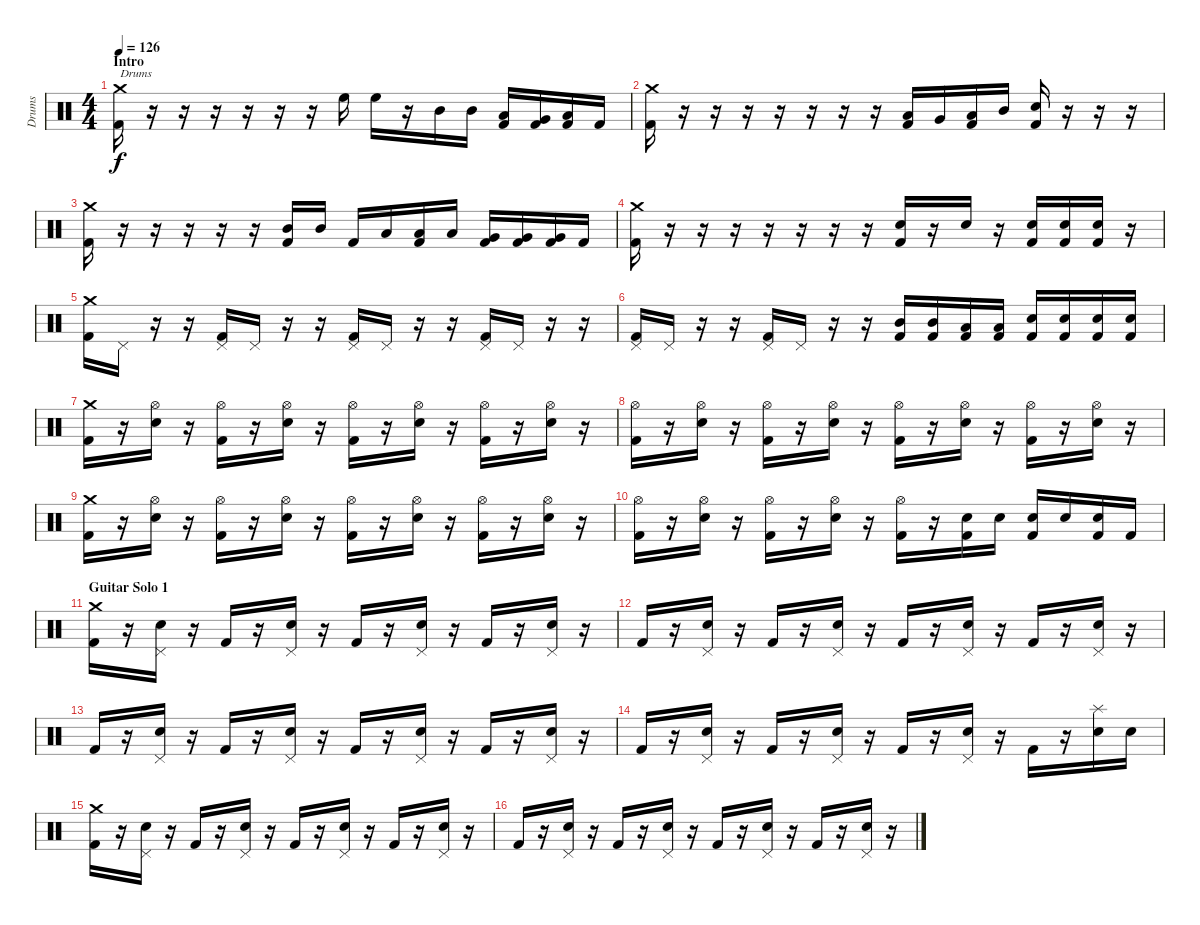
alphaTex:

\track ("Drums" "Drums") {instrument percussion}
\staff {score}
\articulation defaults
\ts (4 4)
\section ("" "Intro")
\tempo 126
\clef neutral
\ks c
("Crash medium (hit)" "Kick (hit) 2").16{txt "Drums" dy f} r.16 r.16 r.16 r.16 r.16 r.16 "High Floor Tom (hit)".16 "High Floor Tom (hit)".16 r.16 "Mid Tom (hit)".16 "Mid Tom (hit)".16 ("Low Tom (hit)" "Kick (hit) 2").16 ("Very Low Tom (hit)" "Kick (hit) 2").16 ("Low Floor Tom (hit)" "Kick (hit) 2").16 "Kick (hit) 2".16 |
("Crash medium (hit)" "Kick (hit) 2").16 r.16 r.16 r.16 r.16 r.16 r.16 r.16 ("Low Floor Tom (hit)" "Kick (hit) 2").16 "Very Low Tom (hit)".16 ("Low Tom (hit)" "Kick (hit) 2").16 "Mid Tom (hit)".16 ("Electric Snare (hit)" "Kick (hit) 2").16 r.16 r.16 r.16 |
("Crash medium (hit)" "Kick (hit) 2").16 r.16 r.16 r.16 r.16 r.16 ("Mid Tom (hit)" "Kick (hit) 2").16 "Mid Tom (hit)".16 "Kick (hit) 2".16 "Low Tom (hit)".16 ("Low Tom (hit)" "Kick (hit) 2").16 "Low Tom (hit)".16 ("Very Low Tom (hit)" "Kick (hit) 2").16 ("Very Low Tom (hit)" "Kick (hit) 2").16 ("Very Low Tom (hit)" "Kick (hit) 2").16 "Kick (hit) 2".16 |
("Crash medium (hit)" "Kick (hit) 2").16 r.16 r.16 r.16 r.16 r.16 r.16 r.16 ("Electric Snare (hit)" "Kick (hit) 2").16 r.16 "Electric Snare (hit)".16 r.16 ("Electric Snare (hit)" "Kick (hit) 2").16 ("Electric Snare (hit)" "Kick (hit) 2").16 ("Electric Snare (hit)" "Kick (hit) 2").16 r.16 |
("Crash medium (hit)" "Kick (hit) 2").16 "Pedal Hi-Hat (hit)".16 r.16 r.16 ("Pedal Hi-Hat (hit)" "Kick (hit) 2").16 "Pedal Hi-Hat (hit)".16 r.16 r.16 ("Pedal Hi-Hat (hit)" "Kick (hit) 2").16 "Pedal Hi-Hat (hit)".16 r.16 r.16 ("Pedal Hi-Hat (hit)" "Kick (hit) 2").16 "Pedal Hi-Hat (hit)".16 r.16 r.16 |
("Pedal Hi-Hat (hit)" "Kick (hit) 2").16 "Pedal Hi-Hat (hit)".16 r.16 r.16 ("Pedal Hi-Hat (hit)" "Kick (hit) 2").16 "Pedal Hi-Hat (hit)".16 r.16 r.16 ("Mid Tom (hit)" "Kick (hit) 2").16 ("Mid Tom (hit)" "Kick (hit) 2").16 ("Low Tom (hit)" "Kick (hit) 2").16 ("Low Tom (hit)" "Kick (hit) 2").16 ("Electric Snare (hit)" "Kick (hit) 2").16 ("Electric Snare (hit)" "Kick (hit) 2").16 ("Electric Snare (hit)" "Kick (hit) 2").16 ("Electric Snare (hit)" "Kick (hit) 2").16 |
("Crash medium (hit)" "Kick (hit) 2").16 r.16 ("Hi-Hat (open)" "Electric Snare (hit)").16 r.16 ("Hi-Hat (open)" "Kick (hit) 2").16 r.16 ("Hi-Hat (open)" "Electric Snare (hit)").16 r.16 ("Hi-Hat (open)" "Kick (hit) 2").16 r.16 ("Hi-Hat (open)" "Electric Snare (hit)").16 r.16 ("Hi-Hat (open)" "Kick (hit) 2").16 r.16 ("Hi-Hat (open)" "Electric Snare (hit)").16 r.16 |
("Hi-Hat (open)" "Kick (hit) 2").16 r.16 ("Hi-Hat (open)" "Electric Snare (hit)").16 r.16 ("Hi-Hat (open)" "Kick (hit) 2").16 r.16 ("Hi-Hat (open)" "Electric Snare (hit)").16 r.16 ("Hi-Hat (open)" "Kick (hit) 2").16 r.16 ("Hi-Hat (open)" "Electric Snare (hit)").16 r.16 ("Hi-Hat (open)" "Kick (hit) 2").16 r.16 ("Hi-Hat (open)" "Electric Snare (hit)").16 r.16 |
("Crash medium (hit)" "Kick (hit) 2").16 r.16 ("Hi-Hat (open)" "Electric Snare (hit)").16 r.16 ("Hi-Hat (open)" "Kick (hit) 2").16 r.16 ("Hi-Hat (open)" "Electric Snare (hit)").16 r.16 ("Hi-Hat (open)" "Kick (hit) 2").16 r.16 ("Hi-Hat (open)" "Electric Snare (hit)").16 r.16 ("Hi-Hat (open)" "Kick (hit) 2").16 r.16 ("Hi-Hat (open)" "Electric Snare (hit)").16 r.16 |
("Hi-Hat (open)" "Kick (hit) 2").16 r.16 ("Hi-Hat (open)" "Electric Snare (hit)").16 r.16 ("Hi-Hat (open)" "Kick (hit) 2").16 r.16 ("Hi-Hat (open)" "Electric Snare (hit)").16 r.16 ("Hi-Hat (open)" "Kick (hit) 2").16 r.16 ("Electric Snare (hit)" "Kick (hit) 2").16 "Electric Snare (hit)".16 ("Electric Snare (hit)" "Kick (hit) 2").16 "Electric Snare (hit)".16 ("Electric Snare (hit)" "Kick (hit) 2").16 "Kick (hit) 2".16 |
\section ("" "Guitar Solo 1")
("Crash medium (hit)" "Kick (hit) 2").16 r.16 ("Pedal Hi-Hat (hit)" "Electric Snare (hit)").16 r.16 "Kick (hit) 2".16 r.16 ("Pedal Hi-Hat (hit)" "Electric Snare (hit)").16 r.16 "Kick (hit) 2".16 r.16 ("Pedal Hi-Hat (hit)" "Electric Snare (hit)").16 r.16 "Kick (hit) 2".16 r.16 ("Pedal Hi-Hat (hit)" "Electric Snare (hit)").16 r.16 |
"Kick (hit) 2".16 r.16 ("Pedal Hi-Hat (hit)" "Electric Snare (hit)").16 r.16 "Kick (hit) 2".16 r.16 ("Pedal Hi-Hat (hit)" "Electric Snare (hit)").16 r.16 "Kick (hit) 2".16 r.16 ("Pedal Hi-Hat (hit)" "Electric Snare (hit)").16 r.16 "Kick (hit) 2".16 r.16 ("Pedal Hi-Hat (hit)" "Electric Snare (hit)").16 r.16 |
"Kick (hit) 2".16 r.16 ("Pedal Hi-Hat (hit)" "Electric Snare (hit)").16 r.16 "Kick (hit) 2".16 r.16 ("Pedal Hi-Hat (hit)" "Electric Snare (hit)").16 r.16 "Kick (hit) 2".16 r.16 ("Pedal Hi-Hat (hit)" "Electric Snare (hit)").16 r.16 "Kick (hit) 2".16 r.16 ("Pedal Hi-Hat (hit)" "Electric Snare (hit)").16 r.16 |
"Kick (hit) 2".16 r.16 ("Pedal Hi-Hat (hit)" "Electric Snare (hit)").16 r.16 "Kick (hit) 2".16 r.16 ("Pedal Hi-Hat (hit)" "Electric Snare (hit)").16 r.16 "Kick (hit) 2".16 r.16 ("Pedal Hi-Hat (hit)" "Electric Snare (hit)").16 r.16 "Kick (hit) 2".16 r.16 ("Splash (hit)" "Electric Snare (hit)").16 "Electric Snare (hit)".16 |
("Crash medium (hit)" "Kick (hit) 2").16 r.16 ("Pedal Hi-Hat (hit)" "Electric Snare (hit)").16 r.16 "Kick (hit) 2".16 r.16 ("Pedal Hi-Hat (hit)" "Electric Snare (hit)").16 r.16 "Kick (hit) 2".16 r.16 ("Pedal Hi-Hat (hit)" "Electric Snare (hit)").16 r.16 "Kick (hit) 2".16 r.16 ("Pedal Hi-Hat (hit)" "Electric Snare (hit)").16 r.16 |
"Kick (hit) 2".16 r.16 ("Pedal Hi-Hat (hit)" "Electric Snare (hit)").16 r.16 "Kick (hit) 2".16 r.16 ("Pedal Hi-Hat (hit)" "Electric Snare (hit)").16 r.16 "Kick (hit) 2".16 r.16 ("Pedal Hi-Hat (hit)" "Electric Snare (hit)").16 r.16 "Kick (hit) 2".16 r.16 ("Pedal Hi-Hat (hit)" "Electric Snare (hit)").16 r.16
